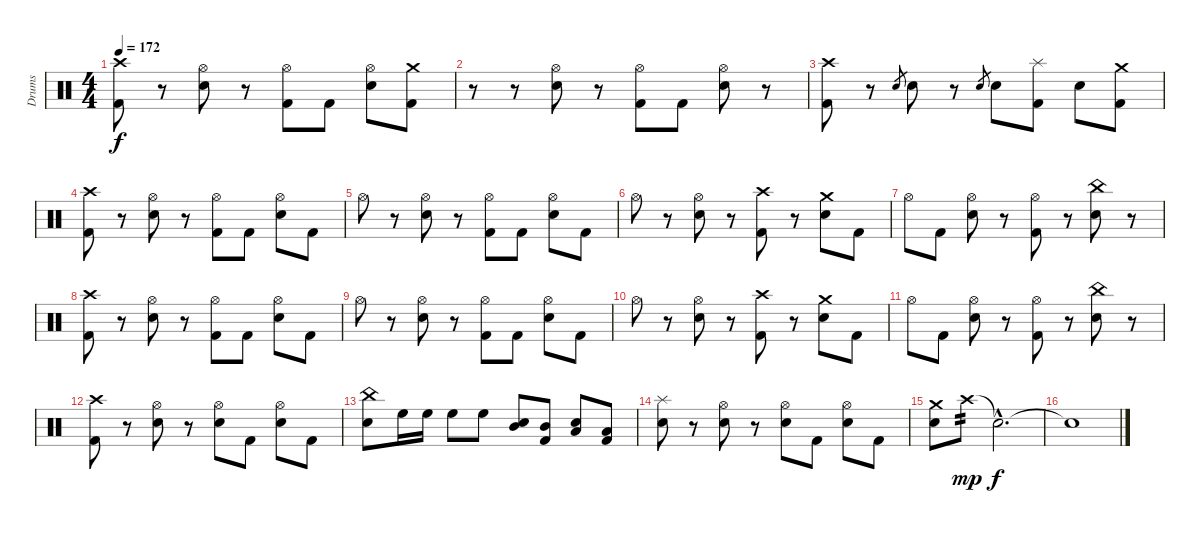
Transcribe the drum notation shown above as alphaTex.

\track ("Drums" "Drums") {instrument percussion}
\staff {score}
\articulation defaults
\ts (4 4)
\tempo 172
\clef neutral
\ks c
("Crash high (hit)" "Kick (hit) 2").8{dy f} r.8 ("Hi-Hat (open)" "Electric Snare (hit)").8 r.8 ("Hi-Hat (open)" "Kick (hit) 2").8 "Kick (hit) 2".8 ("Hi-Hat (open)" "Electric Snare (hit)").8 ("Crash medium (hit)" "Kick (hit) 2").8 |
r.8 r.8 ("Hi-Hat (open)" "Electric Snare (hit)").8 r.8 ("Hi-Hat (open)" "Kick (hit) 2").8 "Kick (hit) 2".8 ("Hi-Hat (open)" "Electric Snare (hit)").8 r.8 |
("Crash high (hit)" "Kick (hit) 2").8 r.8 "Electric Snare (hit)".8{gr} "Electric Snare (hit)".8 r.8 "Electric Snare (hit)".8{gr} "Electric Snare (hit)".8 ("Splash (hit)" "Kick (hit) 2").8 "Electric Snare (hit)".8 ("Crash medium (hit)" "Kick (hit) 2").8 |
\section ("" "")
("Crash high (hit)" "Kick (hit) 2").8 r.8 ("Hi-Hat (open)" "Electric Snare (hit)").8 r.8 ("Hi-Hat (open)" "Kick (hit) 2").8 "Kick (hit) 2".8 ("Hi-Hat (open)" "Electric Snare (hit)").8 "Kick (hit) 2".8 |
"Hi-Hat (open)".8 r.8 ("Hi-Hat (open)" "Electric Snare (hit)").8 r.8 ("Hi-Hat (open)" "Kick (hit) 2").8 "Kick (hit) 2".8 ("Hi-Hat (open)" "Electric Snare (hit)").8 "Kick (hit) 2".8 |
"Hi-Hat (open)".8 r.8 ("Hi-Hat (open)" "Electric Snare (hit)").8 r.8 ("Crash high (hit)" "Kick (hit) 2").8 r.8 ("Crash medium (hit)" "Electric Snare (hit)").8 "Kick (hit) 2".8 |
"Hi-Hat (open)".8 "Kick (hit) 2".8 ("Hi-Hat (open)" "Electric Snare (hit)").8 r.8 ("Hi-Hat (open)" "Kick (hit) 2").8 r.8 ("China (hit)" "Electric Snare (hit)").8 r.8 |
("Crash high (hit)" "Kick (hit) 2").8 r.8 ("Hi-Hat (open)" "Electric Snare (hit)").8 r.8 ("Hi-Hat (open)" "Kick (hit) 2").8 "Kick (hit) 2".8 ("Hi-Hat (open)" "Electric Snare (hit)").8 "Kick (hit) 2".8 |
"Hi-Hat (open)".8 r.8 ("Hi-Hat (open)" "Electric Snare (hit)").8 r.8 ("Hi-Hat (open)" "Kick (hit) 2").8 "Kick (hit) 2".8 ("Hi-Hat (open)" "Electric Snare (hit)").8 "Kick (hit) 2".8 |
"Hi-Hat (open)".8 r.8 ("Hi-Hat (open)" "Electric Snare (hit)").8 r.8 ("Crash high (hit)" "Kick (hit) 2").8 r.8 ("Crash medium (hit)" "Electric Snare (hit)").8 "Kick (hit) 2".8 |
"Hi-Hat (open)".8 "Kick (hit) 2".8 ("Hi-Hat (open)" "Electric Snare (hit)").8 r.8 ("Hi-Hat (open)" "Kick (hit) 2").8 r.8 ("China (hit)" "Electric Snare (hit)").8 r.8 |
\section ("" "")
("Crash high (hit)" "Kick (hit) 2").8 r.8 ("Hi-Hat (open)" "Electric Snare (hit)").8 r.8 ("Hi-Hat (open)" "Electric Snare (hit)").8 "Kick (hit) 2".8 ("Hi-Hat (open)" "Electric Snare (hit)").8 "Kick (hit) 2".8 |
("China (hit)" "Electric Snare (hit)").8 "High Floor Tom (hit)".16 "High Floor Tom (hit)".16 "High Floor Tom (hit)".8 "High Floor Tom (hit)".8 ("Electric Snare (hit)" "Mid Tom (hit)").8 ("Mid Tom (hit)" "Kick (hit) 2").8 ("Electric Snare (hit)" "Low Tom (hit)").8 ("Low Tom (hit)" "Kick (hit) 2").8 |
("Splash (hit)" "Electric Snare (hit)").8 r.8 ("Hi-Hat (open)" "Electric Snare (hit)").8 r.8 ("Hi-Hat (open)" "Electric Snare (hit)").8 "Kick (hit) 2".8 ("Hi-Hat (open)" "Electric Snare (hit)").8 "Kick (hit) 2".8 |
("Crash medium (hit)" "Electric Snare (hit)").8 "Crash high (hit)".8{tp 2 dy mp} "Snare (hit)"{hac t}.2{d dy f} |
"Snare (hit)"{t}.1
